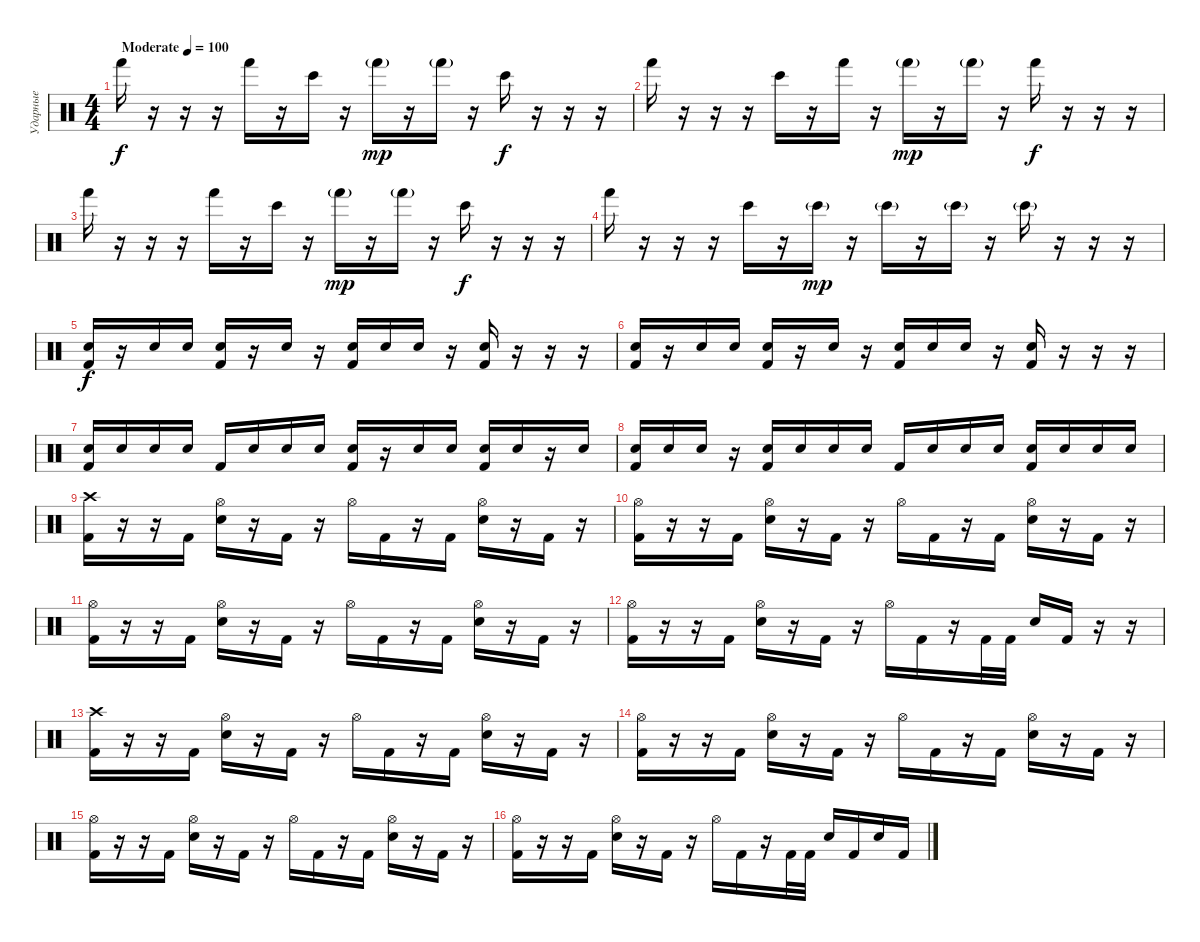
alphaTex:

\track ("Ударные" "Ударные") {instrument percussion}
\staff {score}
\articulation defaults
\ts (4 4)
\tempo (100 "Moderate")
\clef neutral
\ks c "Hand (hit)".16{dy f}
r.16 r.16 r.16 "Hand (hit)".16 r.16 "Bongo High (hit)".16 r.16 "Hand (hit)"{g}.16{dy mp} r.16 "Hand (hit)"{g}.16 r.16 "Bongo High (hit)".16{dy f} r.16 r.16 r.16 |
"Hand (hit)".16 r.16 r.16 r.16 "Bongo High (hit)".16 r.16 "Hand (hit)".16 r.16 "Hand (hit)"{g}.16{dy mp} r.16 "Hand (hit)"{g}.16 r.16 "Hand (hit)".16{dy f} r.16 r.16 r.16 |
"Hand (hit)".16 r.16 r.16 r.16 "Hand (hit)".16 r.16 "Bongo High (hit)".16 r.16 "Hand (hit)"{g}.16{dy mp} r.16 "Hand (hit)"{g}.16 r.16 "Bongo High (hit)".16{dy f} r.16 r.16 r.16 |
"Hand (hit)".16 r.16 r.16 r.16 "Bongo High (hit)".16 r.16 "Bongo High (hit)"{g}.16{dy mp} r.16 "Bongo High (hit)"{g}.16 r.16 "Bongo High (hit)"{g}.16 r.16 "Bongo High (hit)"{g}.16 r.16 r.16 r.16 |
("Snare (hit) 2" "Kick (hit) 2").16{dy f} r.16 "Snare (hit) 2".16 "Snare (hit) 2".16 ("Snare (hit) 2" "Kick (hit) 2").16 r.16 "Snare (hit) 2".16 r.16 ("Snare (hit) 2" "Kick (hit) 2").16 "Snare (hit) 2".16 "Snare (hit) 2".16 r.16 ("Snare (hit) 2" "Kick (hit) 2").16 r.16 r.16 r.16 |
("Snare (hit) 2" "Kick (hit) 2").16 r.16 "Snare (hit) 2".16 "Snare (hit) 2".16 ("Snare (hit) 2" "Kick (hit) 2").16 r.16 "Snare (hit) 2".16 r.16 ("Snare (hit) 2" "Kick (hit) 2").16 "Snare (hit) 2".16 "Snare (hit) 2".16 r.16 ("Snare (hit) 2" "Kick (hit) 2").16 r.16 r.16 r.16 |
("Electric Snare (hit)" "Kick (hit) 2").16 "Electric Snare (hit)".16 "Electric Snare (hit)".16 "Electric Snare (hit)".16 "Kick (hit) 2".16 "Electric Snare (hit)".16 "Electric Snare (hit)".16 "Electric Snare (hit)".16 ("Electric Snare (hit)" "Kick (hit) 2").16 r.16 "Electric Snare (hit)".16 "Electric Snare (hit)".16 ("Electric Snare (hit)" "Kick (hit) 2").16 "Electric Snare (hit)".16 r.16 "Electric Snare (hit)".16 |
("Electric Snare (hit)" "Kick (hit) 2").16 "Electric Snare (hit)".16 "Electric Snare (hit)".16 r.16 ("Electric Snare (hit)" "Kick (hit) 2").16 "Electric Snare (hit)".16 "Electric Snare (hit)".16 "Electric Snare (hit)".16 "Kick (hit) 2".16 "Electric Snare (hit)".16 "Electric Snare (hit)".16 "Electric Snare (hit)".16 ("Electric Snare (hit)" "Kick (hit) 2").16 "Electric Snare (hit)".16 "Electric Snare (hit)".16 "Electric Snare (hit)".16 |
("Crash high (hit)" "Kick (hit) 2").16 r.16 r.16 "Kick (hit) 2".16 ("Hi-Hat (open)" "Electric Snare (hit)").16 r.16 "Kick (hit) 2".16 r.16 "Hi-Hat (open)".16 "Kick (hit) 2".16 r.16 "Kick (hit) 2".16 ("Hi-Hat (open)" "Electric Snare (hit)").16 r.16 "Kick (hit) 2".16 r.16 |
("Hi-Hat (open)" "Kick (hit) 2").16 r.16 r.16 "Kick (hit) 2".16 ("Hi-Hat (open)" "Electric Snare (hit)").16 r.16 "Kick (hit) 2".16 r.16 "Hi-Hat (open)".16 "Kick (hit) 2".16 r.16 "Kick (hit) 2".16 ("Hi-Hat (open)" "Electric Snare (hit)").16 r.16 "Kick (hit) 2".16 r.16 |
("Hi-Hat (open)" "Kick (hit) 2").16 r.16 r.16 "Kick (hit) 2".16 ("Hi-Hat (open)" "Electric Snare (hit)").16 r.16 "Kick (hit) 2".16 r.16 "Hi-Hat (open)".16 "Kick (hit) 2".16 r.16 "Kick (hit) 2".16 ("Hi-Hat (open)" "Electric Snare (hit)").16 r.16 "Kick (hit) 2".16 r.16 |
("Hi-Hat (open)" "Kick (hit) 2").16 r.16 r.16 "Kick (hit) 2".16 ("Hi-Hat (open)" "Electric Snare (hit)").16 r.16 "Kick (hit) 2".16 r.16 "Hi-Hat (open)".16 "Kick (hit) 2".16 r.16 "Kick (hit) 2".32 "Kick (hit) 2".32 "Electric Snare (hit)".16 "Kick (hit) 2".16 r.16 r.16 |
("Crash high (hit)" "Kick (hit) 2").16 r.16 r.16 "Kick (hit) 2".16 ("Hi-Hat (open)" "Electric Snare (hit)").16 r.16 "Kick (hit) 2".16 r.16 "Hi-Hat (open)".16 "Kick (hit) 2".16 r.16 "Kick (hit) 2".16 ("Hi-Hat (open)" "Electric Snare (hit)").16 r.16 "Kick (hit) 2".16 r.16 |
("Hi-Hat (open)" "Kick (hit) 2").16 r.16 r.16 "Kick (hit) 2".16 ("Hi-Hat (open)" "Electric Snare (hit)").16 r.16 "Kick (hit) 2".16 r.16 "Hi-Hat (open)".16 "Kick (hit) 2".16 r.16 "Kick (hit) 2".16 ("Hi-Hat (open)" "Electric Snare (hit)").16 r.16 "Kick (hit) 2".16 r.16 |
("Hi-Hat (open)" "Kick (hit) 2").16 r.16 r.16 "Kick (hit) 2".16 ("Hi-Hat (open)" "Electric Snare (hit)").16 r.16 "Kick (hit) 2".16 r.16 "Hi-Hat (open)".16 "Kick (hit) 2".16 r.16 "Kick (hit) 2".16 ("Hi-Hat (open)" "Electric Snare (hit)").16 r.16 "Kick (hit) 2".16 r.16 |
("Hi-Hat (open)" "Kick (hit) 2").16 r.16 r.16 "Kick (hit) 2".16 ("Hi-Hat (open)" "Electric Snare (hit)").16 r.16 "Kick (hit) 2".16 r.16 "Hi-Hat (open)".16 "Kick (hit) 2".16 r.16 "Kick (hit) 2".32 "Kick (hit) 2".32 "Electric Snare (hit)".16 "Kick (hit) 2".16 "Electric Snare (hit)".16 "Kick (hit) 2".16
